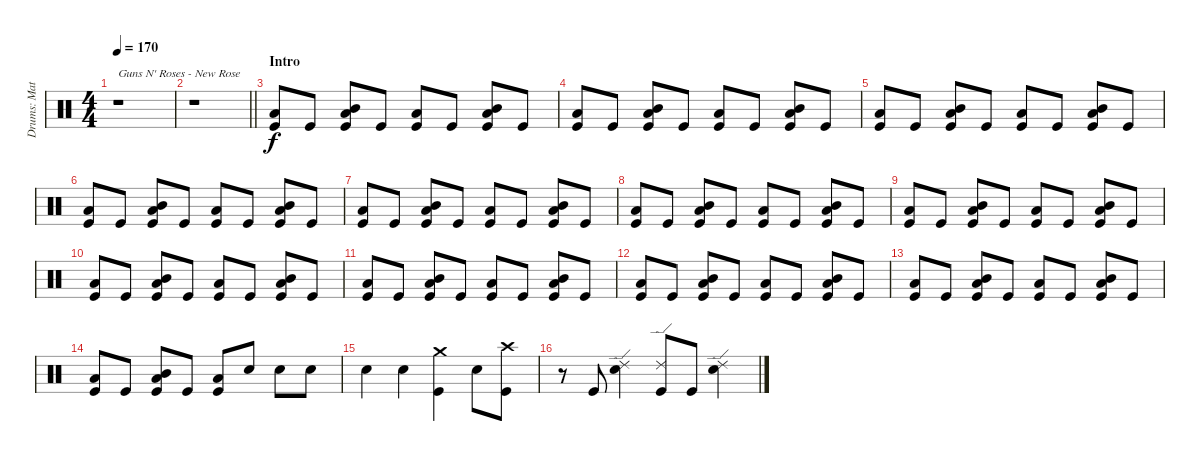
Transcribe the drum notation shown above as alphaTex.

\track ("Drums: Matt" "Drums: Mat") {solo instrument percussion}
\staff {score}
\articulation defaults
\ts (4 4)
\tempo 170
\clef neutral
\ks c
r.1{txt "Guns N' Roses - New Rose" dy f} |
\barLineRight lightlight
r.1 |
\section ("" "Intro")
("Low Floor Tom (hit)" "Kick (hit)").8 "Kick (hit)".8 ("Low Floor Tom (hit)" "Mid Tom (hit)" "Kick (hit)").8 "Kick (hit)".8 ("Low Floor Tom (hit)" "Kick (hit)").8 "Kick (hit)".8 ("Low Floor Tom (hit)" "Kick (hit)" "Mid Tom (hit)").8 "Kick (hit)".8 |
("Low Floor Tom (hit)" "Kick (hit)").8 "Kick (hit)".8 ("Low Floor Tom (hit)" "Mid Tom (hit)" "Kick (hit)").8 "Kick (hit)".8 ("Low Floor Tom (hit)" "Kick (hit)").8 "Kick (hit)".8 ("Mid Tom (hit)" "Low Floor Tom (hit)" "Kick (hit)").8 "Kick (hit)".8 |
("Low Floor Tom (hit)" "Kick (hit)").8 "Kick (hit)".8 ("Low Floor Tom (hit)" "Mid Tom (hit)" "Kick (hit)").8 "Kick (hit)".8 ("Low Floor Tom (hit)" "Kick (hit)").8 "Kick (hit)".8 ("Mid Tom (hit)" "Low Floor Tom (hit)" "Kick (hit)").8 "Kick (hit)".8 |
("Low Floor Tom (hit)" "Kick (hit)").8 "Kick (hit)".8 ("Low Floor Tom (hit)" "Mid Tom (hit)" "Kick (hit)").8 "Kick (hit)".8 ("Low Floor Tom (hit)" "Kick (hit)").8 "Kick (hit)".8 ("Mid Tom (hit)" "Low Floor Tom (hit)" "Kick (hit)").8 "Kick (hit)".8 |
("Kick (hit)" "Low Floor Tom (hit)").8 "Kick (hit)".8 ("Low Floor Tom (hit)" "Kick (hit)" "Mid Tom (hit)").8 "Kick (hit)".8 ("Kick (hit)" "Low Floor Tom (hit)").8 "Kick (hit)".8 ("Kick (hit)" "Low Floor Tom (hit)" "Mid Tom (hit)").8 "Kick (hit)".8 |
("Kick (hit)" "Low Floor Tom (hit)").8 "Kick (hit)".8 ("Low Floor Tom (hit)" "Mid Tom (hit)" "Kick (hit)").8 "Kick (hit)".8 ("Kick (hit)" "Low Floor Tom (hit)").8 "Kick (hit)".8 ("Kick (hit)" "Low Floor Tom (hit)" "Mid Tom (hit)").8 "Kick (hit)".8 |
("Kick (hit)" "Low Floor Tom (hit)").8 "Kick (hit)".8 ("Mid Tom (hit)" "Kick (hit)" "Low Floor Tom (hit)").8 "Kick (hit)".8 ("Low Floor Tom (hit)" "Kick (hit)").8 "Kick (hit)".8 ("Kick (hit)" "Mid Tom (hit)" "Low Floor Tom (hit)").8 "Kick (hit)".8 |
("Low Floor Tom (hit)" "Kick (hit)").8 "Kick (hit)".8 ("Kick (hit)" "Mid Tom (hit)" "Low Floor Tom (hit)").8 "Kick (hit)".8 ("Low Floor Tom (hit)" "Kick (hit)").8 "Kick (hit)".8 ("Mid Tom (hit)" "Kick (hit)" "Low Floor Tom (hit)").8 "Kick (hit)".8 |
("Kick (hit)" "Low Floor Tom (hit)").8 "Kick (hit)".8 ("Low Floor Tom (hit)" "Mid Tom (hit)" "Kick (hit)").8 "Kick (hit)".8 ("Kick (hit)" "Low Floor Tom (hit)").8 "Kick (hit)".8 ("Low Floor Tom (hit)" "Kick (hit)" "Mid Tom (hit)").8 "Kick (hit)".8 |
("Kick (hit)" "Low Floor Tom (hit)").8 "Kick (hit)".8 ("Low Floor Tom (hit)" "Mid Tom (hit)" "Kick (hit)").8 "Kick (hit)".8 ("Low Floor Tom (hit)" "Kick (hit)").8 "Kick (hit)".8 ("Mid Tom (hit)" "Kick (hit)" "Low Floor Tom (hit)").8 "Kick (hit)".8 |
("Low Floor Tom (hit)" "Kick (hit)").8 "Kick (hit)".8 ("Low Floor Tom (hit)" "Kick (hit)" "Mid Tom (hit)").8 "Kick (hit)".8 ("Kick (hit)" "Low Floor Tom (hit)").8 "Kick (hit)".8 ("Mid Tom (hit)" "Kick (hit)" "Low Floor Tom (hit)").8 "Kick (hit)".8 |
("Low Floor Tom (hit)" "Kick (hit)").8 "Kick (hit)".8 ("Low Floor Tom (hit)" "Kick (hit)" "Mid Tom (hit)").8 "Kick (hit)".8 ("Kick (hit)" "Low Floor Tom (hit)").8 "Snare (hit) 2".8 "Snare (hit) 2".8 "Snare (hit) 2".8 |
"Snare (hit) 2".4 "Snare (hit) 2".4 ("Crash medium (hit)" "Kick (hit)").4 "Snare (hit) 2".8 ("Crash high (hit)" "Kick (hit)").8 |
r.8 "Kick (hit)".8 ("Snare (hit) 2" "Ride (edge) 2").4 ("Kick (hit)" "Ride (edge) 2").8 "Kick (hit)".8 ("Snare (hit) 2" "Ride (edge) 2").4
